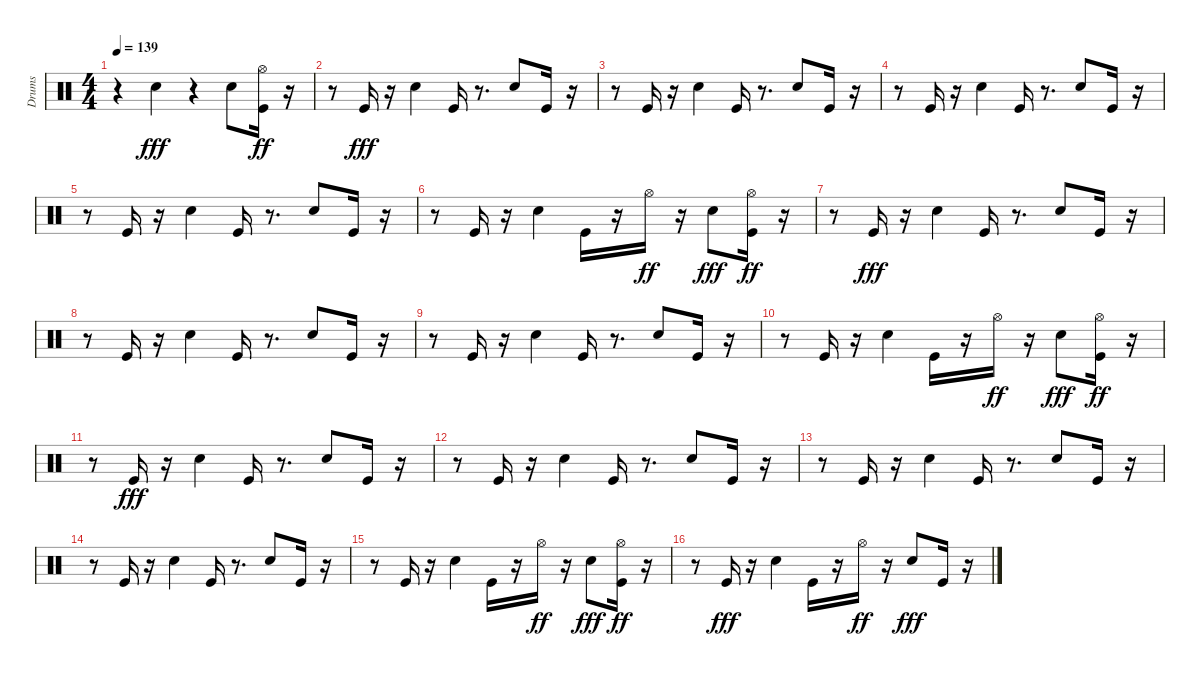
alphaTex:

\track ("Drums" "Drums") {instrument percussion}
\staff {score}
\articulation defaults
\ts (4 4)
\tempo 139
\clef neutral
\ks c
r.4{dy fff} "Snare (hit) 2".4 r.4 "Snare (hit) 2".8 ("Kick (hit)" "Hi-Hat (open)").16{dy ff} r.16 |
r.8 "Kick (hit)".16{dy fff} r.16 "Snare (hit) 2".4 "Kick (hit)".16 r.8{d} "Snare (hit) 2".8 "Kick (hit)".16 r.16 |
r.8 "Kick (hit)".16 r.16 "Snare (hit) 2".4 "Kick (hit)".16 r.8{d} "Snare (hit) 2".8 "Kick (hit)".16 r.16 |
r.8 "Kick (hit)".16 r.16 "Snare (hit) 2".4 "Kick (hit)".16 r.8{d} "Snare (hit) 2".8 "Kick (hit)".16 r.16 |
r.8 "Kick (hit)".16 r.16 "Snare (hit) 2".4 "Kick (hit)".16 r.8{d} "Snare (hit) 2".8 "Kick (hit)".16 r.16 |
r.8 "Kick (hit)".16 r.16 "Snare (hit) 2".4 "Kick (hit)".16 r.16 "Hi-Hat (open)".16{dy ff} r.16 "Snare (hit) 2".8{dy fff} ("Kick (hit)" "Hi-Hat (open)").16{dy ff} r.16 |
r.8 "Kick (hit)".16{dy fff} r.16 "Snare (hit) 2".4 "Kick (hit)".16 r.8{d} "Snare (hit) 2".8 "Kick (hit)".16 r.16 |
r.8 "Kick (hit)".16 r.16 "Snare (hit) 2".4 "Kick (hit)".16 r.8{d} "Snare (hit) 2".8 "Kick (hit)".16 r.16 |
r.8 "Kick (hit)".16 r.16 "Snare (hit) 2".4 "Kick (hit)".16 r.8{d} "Snare (hit) 2".8 "Kick (hit)".16 r.16 |
r.8 "Kick (hit)".16 r.16 "Snare (hit) 2".4 "Kick (hit)".16 r.16 "Hi-Hat (open)".16{dy ff} r.16 "Snare (hit) 2".8{dy fff} ("Kick (hit)" "Hi-Hat (open)").16{dy ff} r.16 |
r.8 "Kick (hit)".16{dy fff} r.16 "Snare (hit) 2".4 "Kick (hit)".16 r.8{d} "Snare (hit) 2".8 "Kick (hit)".16 r.16 |
r.8 "Kick (hit)".16 r.16 "Snare (hit) 2".4 "Kick (hit)".16 r.8{d} "Snare (hit) 2".8 "Kick (hit)".16 r.16 |
r.8 "Kick (hit)".16 r.16 "Snare (hit) 2".4 "Kick (hit)".16 r.8{d} "Snare (hit) 2".8 "Kick (hit)".16 r.16 |
r.8 "Kick (hit)".16 r.16 "Snare (hit) 2".4 "Kick (hit)".16 r.8{d} "Snare (hit) 2".8 "Kick (hit)".16 r.16 |
r.8 "Kick (hit)".16 r.16 "Snare (hit) 2".4 "Kick (hit)".16 r.16 "Hi-Hat (open)".16{dy ff} r.16 "Snare (hit) 2".8{dy fff} ("Kick (hit)" "Hi-Hat (open)").16{dy ff} r.16 |
r.8 "Kick (hit)".16{dy fff} r.16 "Snare (hit) 2".4 "Kick (hit)".16 r.16 "Hi-Hat (open)".16{dy ff} r.16 "Snare (hit) 2".8{dy fff} "Kick (hit)".16 r.16
